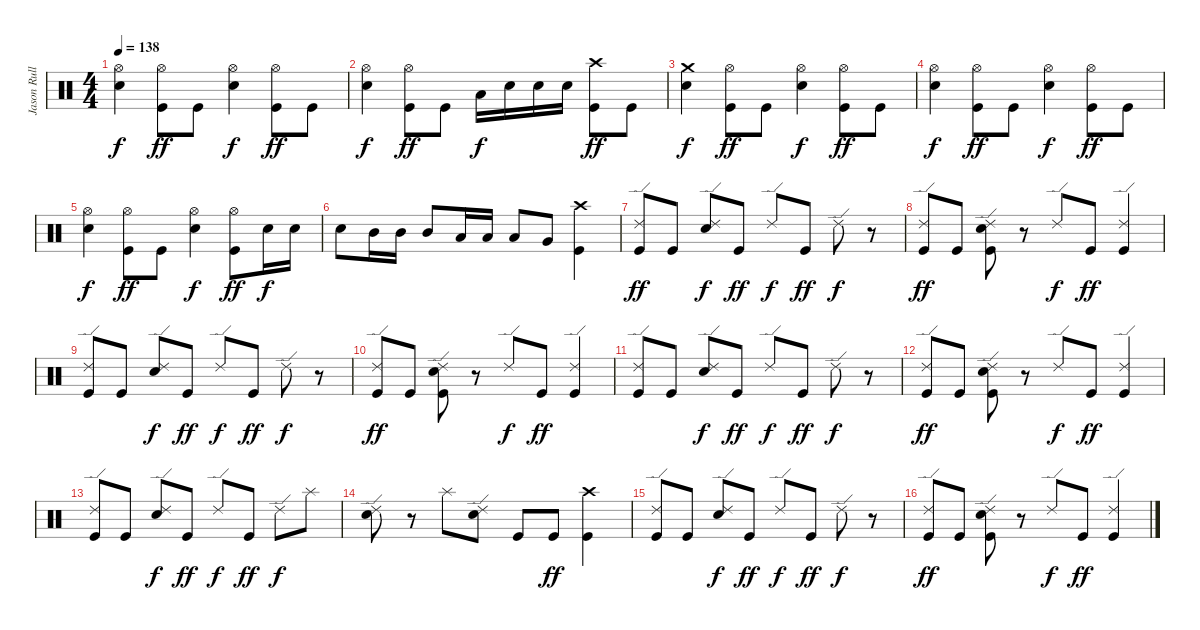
\track ("Jason Rullo" "Jason Rull") {instrument percussion}
\staff {score}
\articulation defaults
\ts (4 4)
\tempo 138
\clef neutral
\ks c
("Snare (hit) 2" "Hi-Hat (open)").4{dy f} ("Kick (hit)" "Hi-Hat (open)").8{dy ff} "Kick (hit)".8 ("Snare (hit) 2" "Hi-Hat (open)").4{dy f} ("Kick (hit)" "Hi-Hat (open)").8{dy ff} "Kick (hit)".8 |
("Snare (hit) 2" "Hi-Hat (open)").4{dy f} ("Kick (hit)" "Hi-Hat (open)").8{dy ff} "Kick (hit)".8 "Low Tom (hit)".16{dy f} "Snare (hit) 2".16 "Snare (hit) 2".16 "Snare (hit) 2".16 ("Kick (hit)" "Crash high (hit)").8{dy ff} "Kick (hit)".8 |
("Snare (hit) 2" "Crash medium (hit)").4{dy f} ("Kick (hit)" "Hi-Hat (open)").8{dy ff} "Kick (hit)".8 ("Snare (hit) 2" "Hi-Hat (open)").4{dy f} ("Kick (hit)" "Hi-Hat (open)").8{dy ff} "Kick (hit)".8 |
("Snare (hit) 2" "Hi-Hat (open)").4{dy f} ("Kick (hit)" "Hi-Hat (open)").8{dy ff} "Kick (hit)".8 ("Snare (hit) 2" "Hi-Hat (open)").4{dy f} ("Kick (hit)" "Hi-Hat (open)").8{dy ff} "Kick (hit)".8 |
("Snare (hit) 2" "Hi-Hat (open)").4{dy f} ("Kick (hit)" "Hi-Hat (open)").8{dy ff} "Kick (hit)".8 ("Snare (hit) 2" "Hi-Hat (open)").4{dy f} ("Kick (hit)" "Hi-Hat (open)").8{dy ff} "Snare (hit) 2".16{dy f} "Snare (hit) 2".16 |
"Snare (hit) 2".8 "Mid Tom (hit)".16 "Mid Tom (hit)".16 "Mid Tom (hit)".8 "Low Tom (hit)".16 "Low Tom (hit)".16 "Low Tom (hit)".8 "Very Low Tom (hit)".8 ("Kick (hit)" "Crash high (hit)").4 |
("Kick (hit)" "Ride (edge) 2").8{dy ff} "Kick (hit)".8 ("Snare (hit) 2" "Ride (edge) 2").8{dy f} "Kick (hit)".8{dy ff} "Ride (edge) 2".8{dy f} "Kick (hit)".8{dy ff} "Ride (edge) 2".8{dy f} r.8 |
("Kick (hit)" "Ride (edge) 2").8{dy ff} "Kick (hit)".8 ("Kick (hit)" "Snare (hit) 2" "Ride (edge) 2").8 r.8 "Ride (edge) 2".8{dy f} "Kick (hit)".8{dy ff} ("Kick (hit)" "Ride (edge) 2").4 |
("Kick (hit)" "Ride (edge) 2").8 "Kick (hit)".8 ("Snare (hit) 2" "Ride (edge) 2").8{dy f} "Kick (hit)".8{dy ff} "Ride (edge) 2".8{dy f} "Kick (hit)".8{dy ff} "Ride (edge) 2".8{dy f} r.8 |
("Kick (hit)" "Ride (edge) 2").8{dy ff} "Kick (hit)".8 ("Kick (hit)" "Snare (hit) 2" "Ride (edge) 2").8 r.8 "Ride (edge) 2".8{dy f} "Kick (hit)".8{dy ff} ("Kick (hit)" "Ride (edge) 2").4 |
("Kick (hit)" "Ride (edge) 2").8 "Kick (hit)".8 ("Snare (hit) 2" "Ride (edge) 2").8{dy f} "Kick (hit)".8{dy ff} "Ride (edge) 2".8{dy f} "Kick (hit)".8{dy ff} "Ride (edge) 2".8{dy f} r.8 |
("Kick (hit)" "Ride (edge) 2").8{dy ff} "Kick (hit)".8 ("Kick (hit)" "Snare (hit) 2" "Ride (edge) 2").8 r.8 "Ride (edge) 2".8{dy f} "Kick (hit)".8{dy ff} ("Kick (hit)" "Ride (edge) 2").4 |
("Kick (hit)" "Ride (edge) 2").8 "Kick (hit)".8 ("Snare (hit) 2" "Ride (edge) 2").8{dy f} "Kick (hit)".8{dy ff} "Ride (edge) 2".8{dy f} "Kick (hit)".8{dy ff} "Ride (edge) 2".8{dy f} "Splash (hit)".8 |
("Snare (hit) 2" "Ride (edge) 2").8 r.8 "Splash (hit)".8 ("Snare (hit) 2" "Ride (edge) 2").8 "Kick (hit)".8 "Kick (hit)".8{dy ff} ("Kick (hit)" "Crash high (hit)").4 |
("Kick (hit)" "Ride (edge) 2").8 "Kick (hit)".8 ("Snare (hit) 2" "Ride (edge) 2").8{dy f} "Kick (hit)".8{dy ff} "Ride (edge) 2".8{dy f} "Kick (hit)".8{dy ff} "Ride (edge) 2".8{dy f} r.8 |
("Kick (hit)" "Ride (edge) 2").8{dy ff} "Kick (hit)".8 ("Kick (hit)" "Snare (hit) 2" "Ride (edge) 2").8 r.8 "Ride (edge) 2".8{dy f} "Kick (hit)".8{dy ff} ("Kick (hit)" "Ride (edge) 2").4
